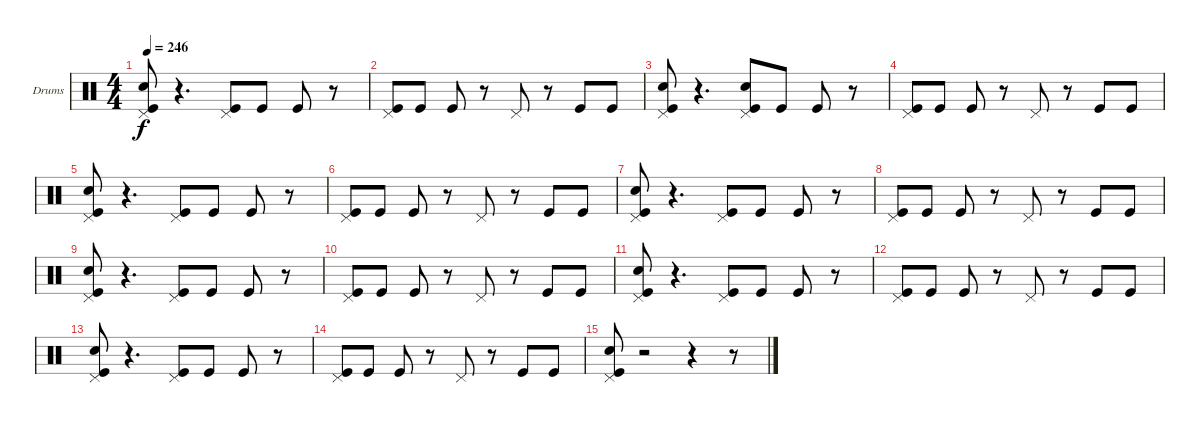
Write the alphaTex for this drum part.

\bracketExtendMode groupsimilarinstruments
\firstSystemTrackNameOrientation horizontal
\otherSystemsTrackNameOrientation horizontal
\track ("Drumkit" "Drums") {instrument percussion}
\staff {score}
\articulation defaults
\ts (4 4)
\tempo 246
\clef neutral
\ks c
("Kick (hit)" "Pedal Hi-Hat (hit)" "Snare (hit) 2").8{dy f} r.4{d} ("Pedal Hi-Hat (hit)" "Kick (hit)").8 "Kick (hit)".8 "Kick (hit)".8 r.8 |
("Kick (hit)" "Pedal Hi-Hat (hit)").8 "Kick (hit)".8 "Kick (hit)".8 r.8 "Pedal Hi-Hat (hit)".8 r.8 "Kick (hit)".8 "Kick (hit)".8 |
("Snare (hit) 2" "Pedal Hi-Hat (hit)" "Kick (hit)").8 r.4{d} ("Snare (hit) 2" "Pedal Hi-Hat (hit)" "Kick (hit)").8 "Kick (hit)".8 "Kick (hit)".8 r.8 |
("Pedal Hi-Hat (hit)" "Kick (hit)").8 "Kick (hit)".8 "Kick (hit)".8 r.8 "Pedal Hi-Hat (hit)".8 r.8 "Kick (hit)".8 "Kick (hit)".8 |
("Snare (hit) 2" "Pedal Hi-Hat (hit)" "Kick (hit)").8 r.4{d} ("Pedal Hi-Hat (hit)" "Kick (hit)").8 "Kick (hit)".8 "Kick (hit)".8 r.8 |
("Kick (hit)" "Pedal Hi-Hat (hit)").8 "Kick (hit)".8 "Kick (hit)".8 r.8 "Pedal Hi-Hat (hit)".8 r.8 "Kick (hit)".8 "Kick (hit)".8 |
("Snare (hit) 2" "Pedal Hi-Hat (hit)" "Kick (hit)").8 r.4{d} ("Kick (hit)" "Pedal Hi-Hat (hit)").8 "Kick (hit)".8 "Kick (hit)".8 r.8 |
("Kick (hit)" "Pedal Hi-Hat (hit)").8 "Kick (hit)".8 "Kick (hit)".8 r.8 "Pedal Hi-Hat (hit)".8 r.8 "Kick (hit)".8 "Kick (hit)".8 |
("Kick (hit)" "Pedal Hi-Hat (hit)" "Snare (hit) 2").8 r.4{d} ("Kick (hit)" "Pedal Hi-Hat (hit)").8 "Kick (hit)".8 "Kick (hit)".8 r.8 |
("Pedal Hi-Hat (hit)" "Kick (hit)").8 "Kick (hit)".8 "Kick (hit)".8 r.8 "Pedal Hi-Hat (hit)".8 r.8 "Kick (hit)".8 "Kick (hit)".8 |
("Snare (hit) 2" "Pedal Hi-Hat (hit)" "Kick (hit)").8 r.4{d} ("Pedal Hi-Hat (hit)" "Kick (hit)").8 "Kick (hit)".8 "Kick (hit)".8 r.8 |
("Pedal Hi-Hat (hit)" "Kick (hit)").8 "Kick (hit)".8 "Kick (hit)".8 r.8 "Pedal Hi-Hat (hit)".8 r.8 "Kick (hit)".8 "Kick (hit)".8 |
("Snare (hit) 2" "Pedal Hi-Hat (hit)" "Kick (hit)").8 r.4{d} ("Pedal Hi-Hat (hit)" "Kick (hit)").8 "Kick (hit)".8 "Kick (hit)".8 r.8 |
("Kick (hit)" "Pedal Hi-Hat (hit)").8 "Kick (hit)".8 "Kick (hit)".8 r.8 "Pedal Hi-Hat (hit)".8 r.8 "Kick (hit)".8 "Kick (hit)".8 |
("Kick (hit)" "Pedal Hi-Hat (hit)" "Snare (hit) 2").8 r.2 r.4 r.8
